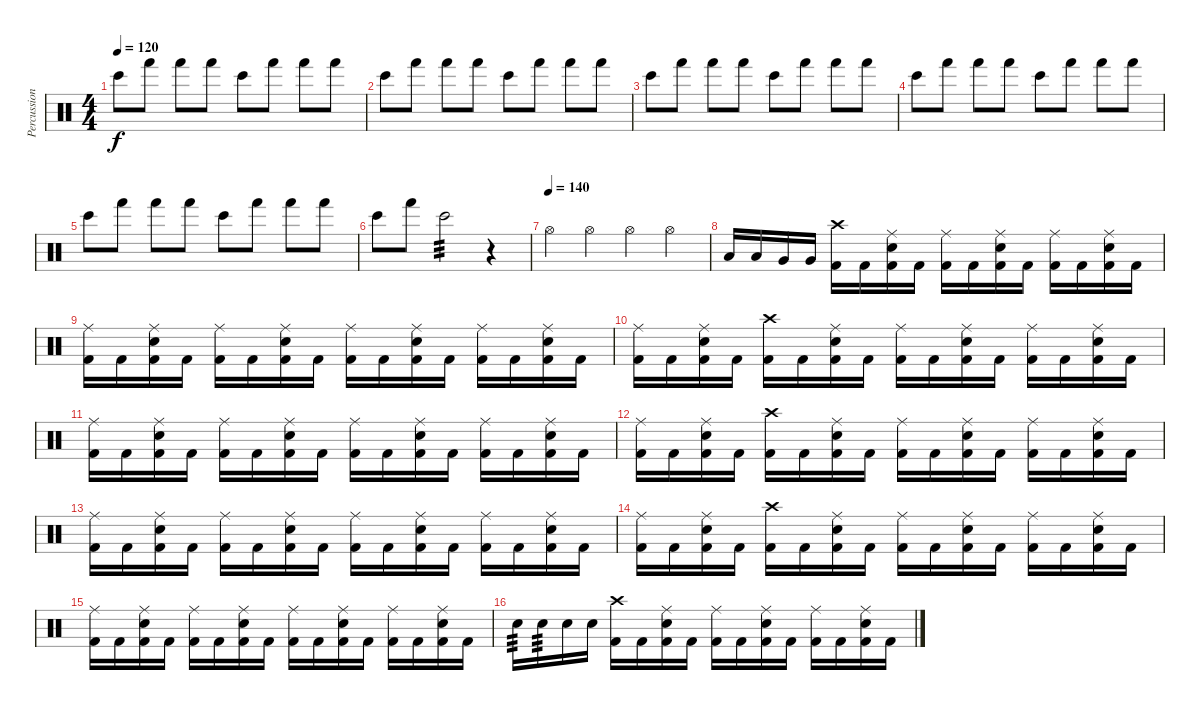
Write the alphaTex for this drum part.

\track ("Percussion" "Percussion") {instrument percussion}
\staff {score}
\articulation defaults
\ts (4 4)
\tempo 120
\clef neutral
\ks c "Bongo High (hit)".8{dy f} "Hand (hit)".8 "Hand (hit)".8 "Hand (hit)".8 "Bongo High (hit)".8 "Hand (hit)".8 "Hand (hit)".8 "Hand (hit)".8
|
"Bongo High (hit)".8 "Hand (hit)".8 "Hand (hit)".8 "Hand (hit)".8 "Bongo High (hit)".8 "Hand (hit)".8 "Hand (hit)".8 "Hand (hit)".8 |
"Bongo High (hit)".8 "Hand (hit)".8 "Hand (hit)".8 "Hand (hit)".8 "Bongo High (hit)".8 "Hand (hit)".8 "Hand (hit)".8 "Hand (hit)".8 |
"Bongo High (hit)".8 "Hand (hit)".8 "Hand (hit)".8 "Hand (hit)".8 "Bongo High (hit)".8 "Hand (hit)".8 "Hand (hit)".8 "Hand (hit)".8 |
"Bongo High (hit)".8 "Hand (hit)".8 "Hand (hit)".8 "Hand (hit)".8 "Bongo High (hit)".8 "Hand (hit)".8 "Hand (hit)".8 "Hand (hit)".8 |
"Bongo High (hit)".8 "Hand (hit)".8 "Bongo High (hit)".2{tp 3} r.4 |
\tempo (140)
"Hi-Hat (open)".4 "Hi-Hat (open)".4 "Hi-Hat (open)".4 "Hi-Hat (open)".4 |
"Low Tom (hit)".16 "Low Tom (hit)".16 "Very Low Tom (hit)".16 "Very Low Tom (hit)".16 ("Kick (hit) 2" "Crash high (hit)").16 "Kick (hit) 2".16 ("Kick (hit) 2" "Electric Snare (hit)" "Ride (middle)").16 "Kick (hit) 2".16 ("Kick (hit) 2" "Ride (middle)").16 "Kick (hit) 2".16 ("Kick (hit) 2" "Electric Snare (hit)" "Ride (middle)").16 "Kick (hit) 2".16 ("Kick (hit) 2" "Ride (middle)").16 "Kick (hit) 2".16 ("Kick (hit) 2" "Electric Snare (hit)" "Ride (middle)").16 "Kick (hit) 2".16 |
("Kick (hit) 2" "Ride (middle)").16 "Kick (hit) 2".16 ("Kick (hit) 2" "Electric Snare (hit)" "Ride (middle)").16 "Kick (hit) 2".16 ("Kick (hit) 2" "Ride (middle)").16 "Kick (hit) 2".16 ("Kick (hit) 2" "Electric Snare (hit)" "Ride (middle)").16 "Kick (hit) 2".16 ("Kick (hit) 2" "Ride (middle)").16 "Kick (hit) 2".16 ("Kick (hit) 2" "Electric Snare (hit)" "Ride (middle)").16 "Kick (hit) 2".16 ("Kick (hit) 2" "Ride (middle)").16 "Kick (hit) 2".16 ("Kick (hit) 2" "Electric Snare (hit)" "Ride (middle)").16 "Kick (hit) 2".16 |
("Kick (hit) 2" "Ride (middle)").16 "Kick (hit) 2".16 ("Kick (hit) 2" "Electric Snare (hit)" "Ride (middle)").16 "Kick (hit) 2".16 ("Kick (hit) 2" "Crash high (hit)").16 "Kick (hit) 2".16 ("Kick (hit) 2" "Electric Snare (hit)" "Ride (middle)").16 "Kick (hit) 2".16 ("Kick (hit) 2" "Ride (middle)").16 "Kick (hit) 2".16 ("Kick (hit) 2" "Electric Snare (hit)" "Ride (middle)").16 "Kick (hit) 2".16 ("Kick (hit) 2" "Ride (middle)").16 "Kick (hit) 2".16 ("Kick (hit) 2" "Electric Snare (hit)" "Ride (middle)").16 "Kick (hit) 2".16 |
("Kick (hit) 2" "Ride (middle)").16 "Kick (hit) 2".16 ("Kick (hit) 2" "Electric Snare (hit)" "Ride (middle)").16 "Kick (hit) 2".16 ("Kick (hit) 2" "Ride (middle)").16 "Kick (hit) 2".16 ("Kick (hit) 2" "Electric Snare (hit)" "Ride (middle)").16 "Kick (hit) 2".16 ("Kick (hit) 2" "Ride (middle)").16 "Kick (hit) 2".16 ("Kick (hit) 2" "Electric Snare (hit)" "Ride (middle)").16 "Kick (hit) 2".16 ("Kick (hit) 2" "Ride (middle)").16 "Kick (hit) 2".16 ("Kick (hit) 2" "Electric Snare (hit)" "Ride (middle)").16 "Kick (hit) 2".16 |
("Kick (hit) 2" "Ride (middle)").16 "Kick (hit) 2".16 ("Kick (hit) 2" "Electric Snare (hit)" "Ride (middle)").16 "Kick (hit) 2".16 ("Kick (hit) 2" "Crash high (hit)").16 "Kick (hit) 2".16 ("Kick (hit) 2" "Electric Snare (hit)" "Ride (middle)").16 "Kick (hit) 2".16 ("Kick (hit) 2" "Ride (middle)").16 "Kick (hit) 2".16 ("Kick (hit) 2" "Electric Snare (hit)" "Ride (middle)").16 "Kick (hit) 2".16 ("Kick (hit) 2" "Ride (middle)").16 "Kick (hit) 2".16 ("Kick (hit) 2" "Electric Snare (hit)" "Ride (middle)").16 "Kick (hit) 2".16 |
("Kick (hit) 2" "Ride (middle)").16 "Kick (hit) 2".16 ("Kick (hit) 2" "Electric Snare (hit)" "Ride (middle)").16 "Kick (hit) 2".16 ("Kick (hit) 2" "Ride (middle)").16 "Kick (hit) 2".16 ("Kick (hit) 2" "Electric Snare (hit)" "Ride (middle)").16 "Kick (hit) 2".16 ("Kick (hit) 2" "Ride (middle)").16 "Kick (hit) 2".16 ("Kick (hit) 2" "Electric Snare (hit)" "Ride (middle)").16 "Kick (hit) 2".16 ("Kick (hit) 2" "Ride (middle)").16 "Kick (hit) 2".16 ("Kick (hit) 2" "Electric Snare (hit)" "Ride (middle)").16 "Kick (hit) 2".16 |
("Kick (hit) 2" "Ride (middle)").16 "Kick (hit) 2".16 ("Kick (hit) 2" "Electric Snare (hit)" "Ride (middle)").16 "Kick (hit) 2".16 ("Kick (hit) 2" "Crash high (hit)").16 "Kick (hit) 2".16 ("Kick (hit) 2" "Electric Snare (hit)" "Ride (middle)").16 "Kick (hit) 2".16 ("Kick (hit) 2" "Ride (middle)").16 "Kick (hit) 2".16 ("Kick (hit) 2" "Electric Snare (hit)" "Ride (middle)").16 "Kick (hit) 2".16 ("Kick (hit) 2" "Ride (middle)").16 "Kick (hit) 2".16 ("Kick (hit) 2" "Electric Snare (hit)" "Ride (middle)").16 "Kick (hit) 2".16 |
("Kick (hit) 2" "Ride (middle)").16 "Kick (hit) 2".16 ("Kick (hit) 2" "Electric Snare (hit)" "Ride (middle)").16 "Kick (hit) 2".16 ("Kick (hit) 2" "Ride (middle)").16 "Kick (hit) 2".16 ("Kick (hit) 2" "Electric Snare (hit)" "Ride (middle)").16 "Kick (hit) 2".16 ("Kick (hit) 2" "Ride (middle)").16 "Kick (hit) 2".16 ("Kick (hit) 2" "Electric Snare (hit)" "Ride (middle)").16 "Kick (hit) 2".16 ("Kick (hit) 2" "Ride (middle)").16 "Kick (hit) 2".16 ("Kick (hit) 2" "Electric Snare (hit)" "Ride (middle)").16 "Kick (hit) 2".16 |
"Electric Snare (hit)".16{tp 3} "Electric Snare (hit)".16{tp 3} "Electric Snare (hit)".16 "Electric Snare (hit)".16 ("Kick (hit) 2" "Crash high (hit)").16 "Kick (hit) 2".16 ("Kick (hit) 2" "Electric Snare (hit)" "Ride (middle)").16 "Kick (hit) 2".16 ("Kick (hit) 2" "Ride (middle)").16 "Kick (hit) 2".16 ("Kick (hit) 2" "Electric Snare (hit)" "Ride (middle)").16 "Kick (hit) 2".16 ("Kick (hit) 2" "Ride (middle)").16 "Kick (hit) 2".16 ("Kick (hit) 2" "Electric Snare (hit)" "Ride (middle)").16 "Kick (hit) 2".16
